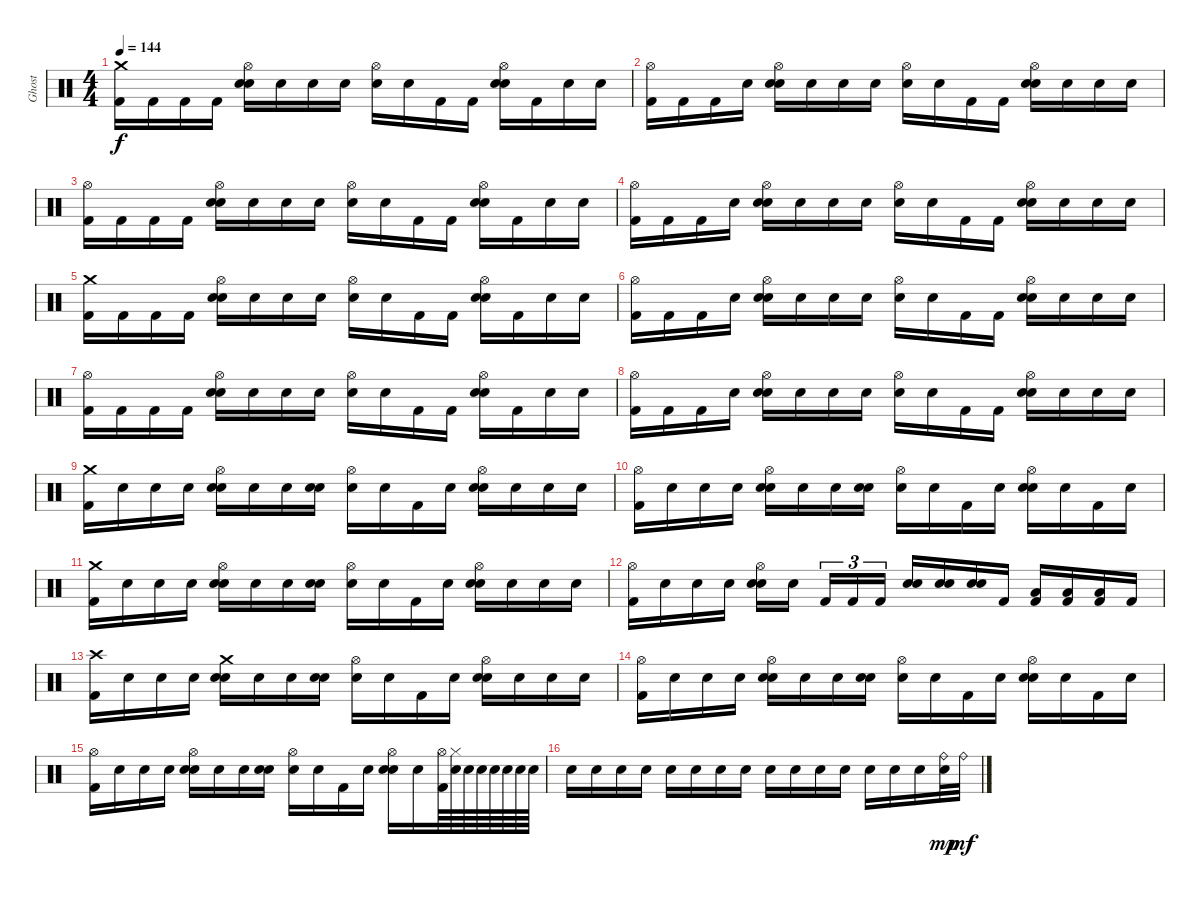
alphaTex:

\track ("Ghost" "Ghost") {instrument percussion}
\staff {score}
\articulation defaults
\ts (4 4)
\tempo 144
\clef neutral
\ks c
("Crash medium (hit)" "Kick (hit) 2").16{dy f} "Kick (hit) 2".16 "Kick (hit) 2".16 "Kick (hit) 2".16 ("Hi-Hat (open)" "Electric Snare (hit)" "Snare (hit)").16 "Snare (hit)".16 "Snare (hit)".16 "Electric Snare (hit)".16 ("Hi-Hat (open)" "Snare (hit)").16 "Snare (hit)".16 "Kick (hit) 2".16 "Kick (hit) 2".16 ("Hi-Hat (open)" "Electric Snare (hit)" "Snare (hit)").16 "Kick (hit) 2".16 "Snare (hit)".16 "Snare (hit)".16 |
("Hi-Hat (open)" "Kick (hit) 2").16 "Kick (hit) 2".16 "Kick (hit) 2".16 "Snare (hit)".16 ("Hi-Hat (open)" "Electric Snare (hit)" "Snare (hit)").16 "Snare (hit)".16 "Snare (hit)".16 "Electric Snare (hit)".16 ("Hi-Hat (open)" "Snare (hit)").16 "Snare (hit)".16 "Kick (hit) 2".16 "Kick (hit) 2".16 ("Hi-Hat (open)" "Electric Snare (hit)" "Snare (hit)").16 "Snare (hit)".16 "Snare (hit)".16 "Snare (hit)".16 |
("Hi-Hat (open)" "Kick (hit) 2").16 "Kick (hit) 2".16 "Kick (hit) 2".16 "Kick (hit) 2".16 ("Hi-Hat (open)" "Electric Snare (hit)" "Snare (hit)").16 "Snare (hit)".16 "Snare (hit)".16 "Electric Snare (hit)".16 ("Hi-Hat (open)" "Snare (hit)").16 "Snare (hit)".16 "Kick (hit) 2".16 "Kick (hit) 2".16 ("Hi-Hat (open)" "Electric Snare (hit)" "Snare (hit)").16 "Kick (hit) 2".16 "Snare (hit)".16 "Snare (hit)".16 |
("Hi-Hat (open)" "Kick (hit) 2").16 "Kick (hit) 2".16 "Kick (hit) 2".16 "Snare (hit)".16 ("Hi-Hat (open)" "Electric Snare (hit)" "Snare (hit)").16 "Snare (hit)".16 "Snare (hit)".16 "Electric Snare (hit)".16 ("Hi-Hat (open)" "Snare (hit)").16 "Snare (hit)".16 "Kick (hit) 2".16 "Kick (hit) 2".16 ("Hi-Hat (open)" "Electric Snare (hit)" "Snare (hit)").16 "Snare (hit)".16 "Snare (hit)".16 "Snare (hit)".16 |
("Crash medium (hit)" "Kick (hit) 2").16 "Kick (hit) 2".16 "Kick (hit) 2".16 "Kick (hit) 2".16 ("Hi-Hat (open)" "Electric Snare (hit)" "Snare (hit)").16 "Snare (hit)".16 "Snare (hit)".16 "Electric Snare (hit)".16 ("Hi-Hat (open)" "Snare (hit)").16 "Snare (hit)".16 "Kick (hit) 2".16 "Kick (hit) 2".16 ("Hi-Hat (open)" "Electric Snare (hit)" "Snare (hit)").16 "Kick (hit) 2".16 "Snare (hit)".16 "Snare (hit)".16 |
("Hi-Hat (open)" "Kick (hit) 2").16 "Kick (hit) 2".16 "Kick (hit) 2".16 "Snare (hit)".16 ("Hi-Hat (open)" "Electric Snare (hit)" "Snare (hit)").16 "Snare (hit)".16 "Snare (hit)".16 "Electric Snare (hit)".16 ("Hi-Hat (open)" "Snare (hit)").16 "Snare (hit)".16 "Kick (hit) 2".16 "Kick (hit) 2".16 ("Hi-Hat (open)" "Electric Snare (hit)" "Snare (hit)").16 "Snare (hit)".16 "Snare (hit)".16 "Snare (hit)".16 |
("Hi-Hat (open)" "Kick (hit) 2").16 "Kick (hit) 2".16 "Kick (hit) 2".16 "Kick (hit) 2".16 ("Hi-Hat (open)" "Electric Snare (hit)" "Snare (hit)").16 "Snare (hit)".16 "Snare (hit)".16 "Electric Snare (hit)".16 ("Hi-Hat (open)" "Snare (hit)").16 "Snare (hit)".16 "Kick (hit) 2".16 "Kick (hit) 2".16 ("Hi-Hat (open)" "Electric Snare (hit)" "Snare (hit)").16 "Kick (hit) 2".16 "Snare (hit)".16 "Snare (hit)".16 |
("Hi-Hat (open)" "Kick (hit) 2").16 "Kick (hit) 2".16 "Kick (hit) 2".16 "Snare (hit)".16 ("Hi-Hat (open)" "Electric Snare (hit)" "Snare (hit)").16 "Snare (hit)".16 "Snare (hit)".16 "Electric Snare (hit)".16 ("Hi-Hat (open)" "Snare (hit)").16 "Snare (hit)".16 "Kick (hit) 2".16 "Kick (hit) 2".16 ("Hi-Hat (open)" "Electric Snare (hit)" "Snare (hit)").16 "Snare (hit)".16 "Snare (hit)".16 "Snare (hit)".16 |
("Crash medium (hit)" "Kick (hit) 2").16 "Snare (hit)".16 "Snare (hit)".16 "Snare (hit)".16 ("Hi-Hat (open)" "Electric Snare (hit)" "Snare (hit)").16 "Snare (hit)".16 "Snare (hit)".16 ("Electric Snare (hit)" "Snare (hit)").16 ("Hi-Hat (open)" "Snare (hit)").16 "Snare (hit)".16 "Kick (hit) 2".16 "Snare (hit)".16 ("Hi-Hat (open)" "Electric Snare (hit)" "Snare (hit)").16 "Snare (hit)".16 "Snare (hit)".16 "Snare (hit)".16 |
("Hi-Hat (open)" "Kick (hit) 2").16 "Snare (hit)".16 "Snare (hit)".16 "Snare (hit)".16 ("Hi-Hat (open)" "Electric Snare (hit)" "Snare (hit)").16 "Snare (hit)".16 "Snare (hit)".16 ("Electric Snare (hit)" "Snare (hit)").16 ("Hi-Hat (open)" "Snare (hit)").16 "Snare (hit)".16 "Kick (hit) 2".16 "Snare (hit)".16 ("Hi-Hat (open)" "Electric Snare (hit)" "Snare (hit)").16 "Snare (hit)".16 "Kick (hit) 2".16 "Snare (hit)".16 |
("Crash medium (hit)" "Kick (hit) 2").16 "Snare (hit)".16 "Snare (hit)".16 "Snare (hit)".16 ("Hi-Hat (open)" "Electric Snare (hit)" "Snare (hit)").16 "Snare (hit)".16 "Snare (hit)".16 ("Electric Snare (hit)" "Snare (hit)").16 ("Hi-Hat (open)" "Snare (hit)").16 "Snare (hit)".16 "Kick (hit) 2".16 "Snare (hit)".16 ("Hi-Hat (open)" "Electric Snare (hit)" "Snare (hit)").16 "Snare (hit)".16 "Snare (hit)".16 "Snare (hit)".16 |
("Hi-Hat (open)" "Kick (hit) 2").16 "Snare (hit)".16 "Snare (hit)".16 "Snare (hit)".16 ("Hi-Hat (open)" "Electric Snare (hit)" "Snare (hit)").16 "Snare (hit)".16{beam splitsecondary} "Kick (hit) 2".16{tu (3 2)} "Kick (hit) 2".16{tu (3 2)} "Kick (hit) 2".16{tu (3 2)} ("Electric Snare (hit)" "Snare (hit)").16 ("Electric Snare (hit)" "Snare (hit)").16 ("Electric Snare (hit)" "Snare (hit)").16 "Kick (hit) 2".16 ("Low Tom (hit)" "Kick (hit) 2").16 ("Low Tom (hit)" "Kick (hit) 2").16 ("Low Tom (hit)" "Kick (hit) 2").16 "Kick (hit) 2".16 |
("Crash high (hit)" "Kick (hit) 2").16 "Snare (hit)".16 "Snare (hit)".16 "Snare (hit)".16 ("Crash medium (hit)" "Electric Snare (hit)" "Snare (hit)").16 "Snare (hit)".16 "Snare (hit)".16 ("Electric Snare (hit)" "Snare (hit)").16 ("Hi-Hat (open)" "Snare (hit)").16 "Snare (hit)".16 "Kick (hit) 2".16 "Snare (hit)".16 ("Hi-Hat (open)" "Electric Snare (hit)" "Snare (hit)").16 "Snare (hit)".16 "Snare (hit)".16 "Snare (hit)".16 |
("Hi-Hat (open)" "Kick (hit) 2").16 "Snare (hit)".16 "Snare (hit)".16 "Snare (hit)".16 ("Hi-Hat (open)" "Electric Snare (hit)" "Snare (hit)").16 "Snare (hit)".16 "Snare (hit)".16 ("Electric Snare (hit)" "Snare (hit)").16 ("Hi-Hat (open)" "Snare (hit)").16 "Snare (hit)".16 "Kick (hit) 2".16 "Snare (hit)".16 ("Hi-Hat (open)" "Electric Snare (hit)" "Snare (hit)").16 "Snare (hit)".16 "Kick (hit) 2".16 "Snare (hit)".16 |
("Hi-Hat (open)" "Kick (hit) 2").16 "Snare (hit)".16 "Snare (hit)".16 "Snare (hit)".16 ("Hi-Hat (open)" "Electric Snare (hit)" "Snare (hit)").16 "Snare (hit)".16 "Snare (hit)".16 ("Electric Snare (hit)" "Snare (hit)").16 ("Hi-Hat (open)" "Snare (hit)").16 "Snare (hit)".16 "Kick (hit) 2".16 "Snare (hit)".16 ("Hi-Hat (open)" "Electric Snare (hit)" "Snare (hit)").16 "Snare (hit)".16 ("Hi-Hat (open)" "Kick (hit) 2").64 ("Hi-Hat (closed)" "Snare (hit)").64 "Snare (hit)".64 "Snare (hit)".64 "Snare (hit)".64 "Snare (hit)".64 "Snare (hit)".64 "Snare (hit)".64 |
"Snare (hit)".16 "Snare (hit)".16 "Snare (hit)".16 "Snare (hit)".16 "Snare (hit)".16 "Snare (hit)".16 "Snare (hit)".16 "Snare (hit)".16 "Snare (hit)".16 "Snare (hit)".16 "Snare (hit)".16 "Snare (hit)".16 "Snare (hit)".16 "Snare (hit)".16 "Snare (hit)".16 ("Ride (bell)" "Snare (hit)").32{dy mp} "Ride (bell)".32{dy mf}
